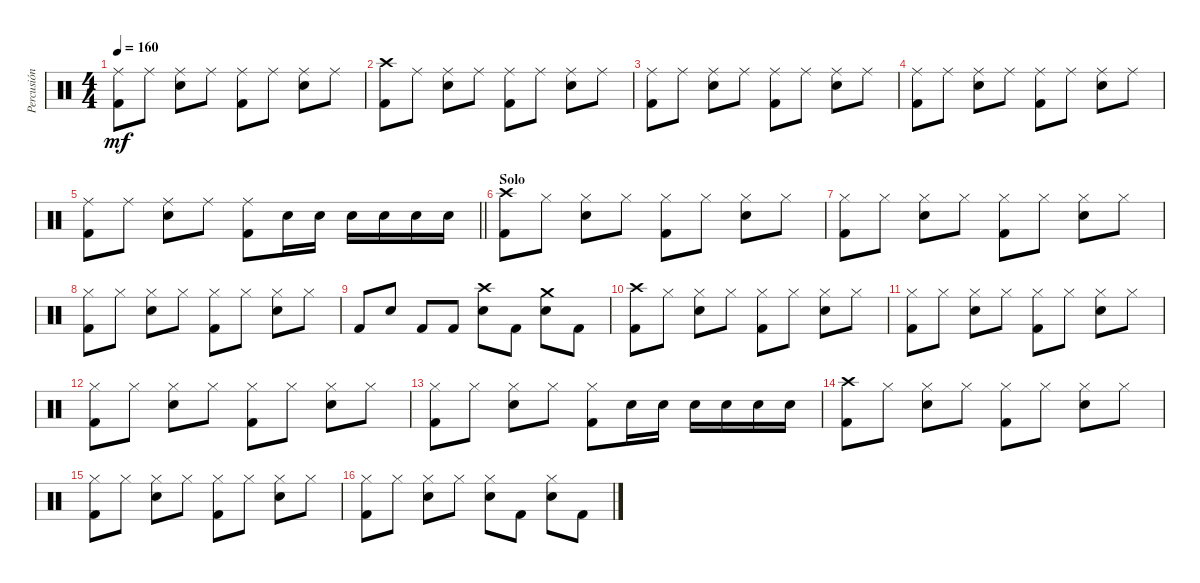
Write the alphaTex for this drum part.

\track ("Percusión" "Percusión") {instrument percussion}
\staff {score}
\articulation defaults
\ts (4 4)
\tempo 160
\clef neutral
\ks c
("Ride (middle)" "Kick (hit) 2").8{dy mf} "Ride (middle)".8 ("Ride (middle)" "Electric Snare (hit)").8 "Ride (middle)".8 ("Ride (middle)" "Kick (hit) 2").8 "Ride (middle)".8 ("Ride (middle)" "Electric Snare (hit)").8 "Ride (middle)".8 |
("Crash high (hit)" "Kick (hit) 2").8 "Ride (middle)".8 ("Ride (middle)" "Electric Snare (hit)").8 "Ride (middle)".8 ("Ride (middle)" "Kick (hit) 2").8 "Ride (middle)".8 ("Ride (middle)" "Electric Snare (hit)").8 "Ride (middle)".8 |
("Ride (middle)" "Kick (hit) 2").8 "Ride (middle)".8 ("Ride (middle)" "Electric Snare (hit)").8 "Ride (middle)".8 ("Ride (middle)" "Kick (hit) 2").8 "Ride (middle)".8 ("Ride (middle)" "Electric Snare (hit)").8 "Ride (middle)".8 |
("Ride (middle)" "Kick (hit) 2").8 "Ride (middle)".8 ("Ride (middle)" "Electric Snare (hit)").8 "Ride (middle)".8 ("Ride (middle)" "Kick (hit) 2").8 "Ride (middle)".8 ("Ride (middle)" "Electric Snare (hit)").8 "Ride (middle)".8 |
\barLineRight lightlight
("Ride (middle)" "Kick (hit) 2").8 "Ride (middle)".8 ("Ride (middle)" "Electric Snare (hit)").8 "Ride (middle)".8 ("Ride (middle)" "Kick (hit) 2").8 "Electric Snare (hit)".16 "Electric Snare (hit)".16 "Electric Snare (hit)".16 "Electric Snare (hit)".16 "Electric Snare (hit)".16 "Electric Snare (hit)".16 |
\section ("" "Solo")
("Crash high (hit)" "Kick (hit) 2").8 "Hi-Hat (closed)".8 ("Hi-Hat (closed)" "Electric Snare (hit)").8 "Hi-Hat (closed)".8 ("Hi-Hat (closed)" "Kick (hit) 2").8 "Hi-Hat (closed)".8 ("Hi-Hat (closed)" "Electric Snare (hit)").8 "Hi-Hat (closed)".8 |
("Hi-Hat (closed)" "Kick (hit) 2").8 "Hi-Hat (closed)".8 ("Hi-Hat (closed)" "Electric Snare (hit)").8 "Hi-Hat (closed)".8 ("Hi-Hat (closed)" "Kick (hit) 2").8 "Hi-Hat (closed)".8 ("Hi-Hat (closed)" "Electric Snare (hit)").8 "Hi-Hat (closed)".8 |
("Hi-Hat (closed)" "Kick (hit) 2").8 "Hi-Hat (closed)".8 ("Hi-Hat (closed)" "Electric Snare (hit)").8 "Hi-Hat (closed)".8 ("Hi-Hat (closed)" "Kick (hit) 2").8 "Hi-Hat (closed)".8 ("Hi-Hat (closed)" "Electric Snare (hit)").8 "Hi-Hat (closed)".8 |
"Kick (hit) 2".8 "Electric Snare (hit)".8 "Kick (hit) 2".8 "Kick (hit) 2".8 ("Crash high (hit)" "Electric Snare (hit)").8 "Kick (hit) 2".8 ("Crash medium (hit)" "Electric Snare (hit)").8 "Kick (hit) 2".8 |
("Crash high (hit)" "Kick (hit) 2").8 "Hi-Hat (closed)".8 ("Hi-Hat (closed)" "Electric Snare (hit)").8 "Hi-Hat (closed)".8 ("Hi-Hat (closed)" "Kick (hit) 2").8 "Hi-Hat (closed)".8 ("Hi-Hat (closed)" "Electric Snare (hit)").8 "Hi-Hat (closed)".8 |
("Hi-Hat (closed)" "Kick (hit) 2").8 "Hi-Hat (closed)".8 ("Hi-Hat (closed)" "Electric Snare (hit)").8 "Hi-Hat (closed)".8 ("Hi-Hat (closed)" "Kick (hit) 2").8 "Hi-Hat (closed)".8 ("Hi-Hat (closed)" "Electric Snare (hit)").8 "Hi-Hat (closed)".8 |
("Hi-Hat (closed)" "Kick (hit) 2").8 "Hi-Hat (closed)".8 ("Hi-Hat (closed)" "Electric Snare (hit)").8 "Hi-Hat (closed)".8 ("Hi-Hat (closed)" "Kick (hit) 2").8 "Hi-Hat (closed)".8 ("Hi-Hat (closed)" "Electric Snare (hit)").8 "Hi-Hat (closed)".8 |
("Hi-Hat (closed)" "Kick (hit) 2").8 "Hi-Hat (closed)".8 ("Hi-Hat (closed)" "Electric Snare (hit)").8 "Hi-Hat (closed)".8 ("Hi-Hat (closed)" "Kick (hit) 2").8 "Electric Snare (hit)".16 "Electric Snare (hit)".16 "Electric Snare (hit)".16 "Electric Snare (hit)".16 "Electric Snare (hit)".16 "Electric Snare (hit)".16 |
("Crash high (hit)" "Kick (hit) 2").8 "Hi-Hat (closed)".8 ("Hi-Hat (closed)" "Electric Snare (hit)").8 "Hi-Hat (closed)".8 ("Hi-Hat (closed)" "Kick (hit) 2").8 "Hi-Hat (closed)".8 ("Hi-Hat (closed)" "Electric Snare (hit)").8 "Hi-Hat (closed)".8 |
("Hi-Hat (closed)" "Kick (hit) 2").8 "Hi-Hat (closed)".8 ("Hi-Hat (closed)" "Electric Snare (hit)").8 "Hi-Hat (closed)".8 ("Hi-Hat (closed)" "Kick (hit) 2").8 "Hi-Hat (closed)".8 ("Hi-Hat (closed)" "Electric Snare (hit)").8 "Hi-Hat (closed)".8 |
("Hi-Hat (closed)" "Kick (hit) 2").8 "Hi-Hat (closed)".8 ("Hi-Hat (closed)" "Electric Snare (hit)").8 "Hi-Hat (closed)".8 ("Hi-Hat (closed)" "Electric Snare (hit)").8 "Kick (hit) 2".8 ("Hi-Hat (closed)" "Electric Snare (hit)").8 "Kick (hit) 2".8
